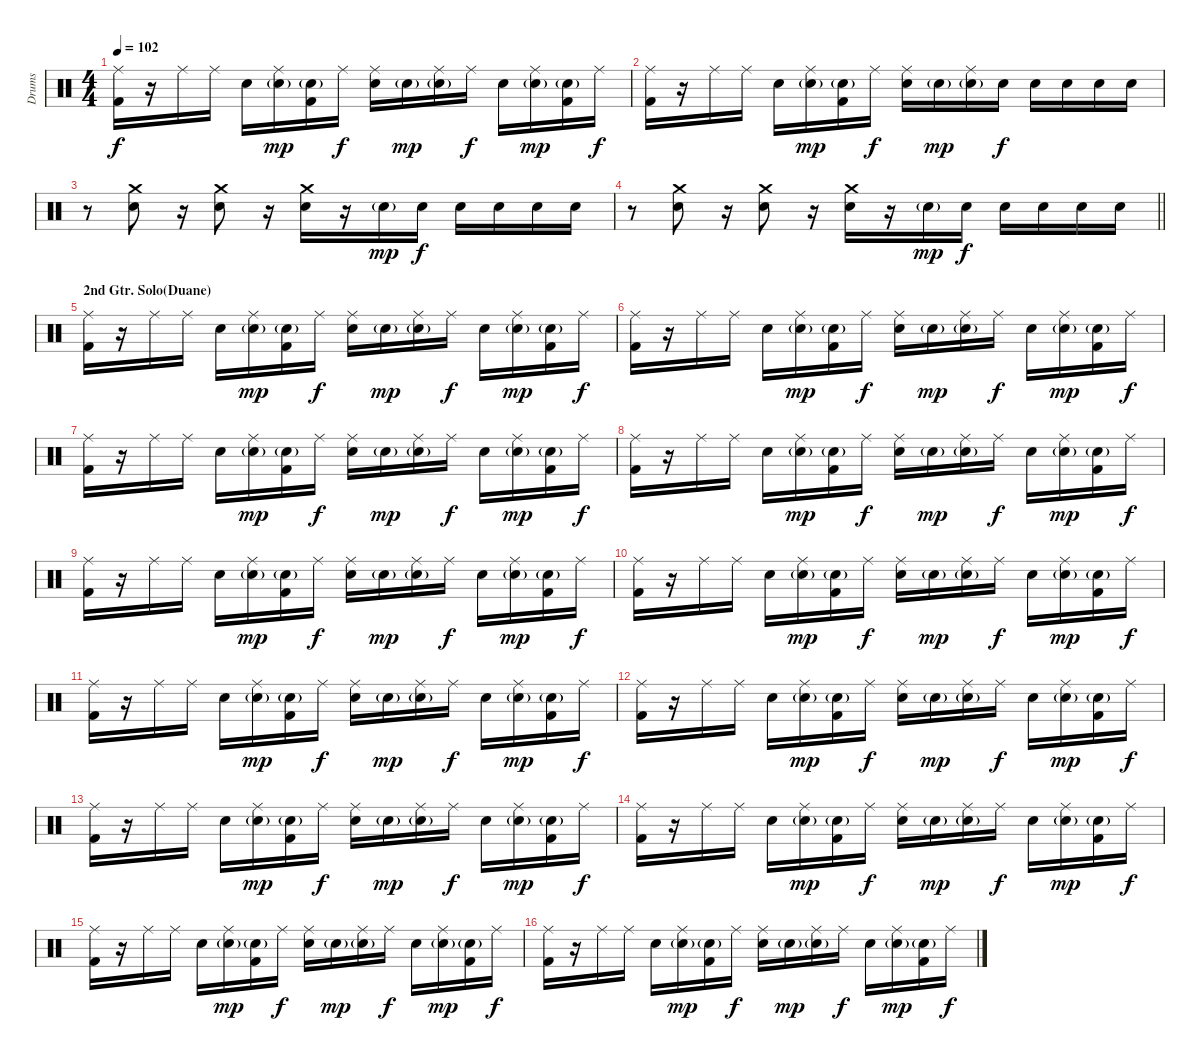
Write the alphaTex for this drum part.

\track ("Drums" "Drums") {instrument percussion}
\staff {score}
\articulation defaults
\ts (4 4)
\tempo 102
\clef neutral
\ks c
("Ride (middle)" "Kick (hit) 2").16{dy f} r.16 "Ride (middle)".16 "Ride (middle)".16 "Electric Snare (hit)".16 ("Ride (middle)" "Electric Snare (hit)"{g}).16{dy mp} ("Electric Snare (hit)"{g} "Kick (hit) 2").16 "Ride (middle)".16{dy f} ("Ride (middle)" "Electric Snare (hit)").16 "Electric Snare (hit)"{g}.16{dy mp} ("Ride (middle)" "Electric Snare (hit)"{g}).16 "Ride (middle)".16{dy f} "Electric Snare (hit)".16 ("Ride (middle)" "Electric Snare (hit)"{g}).16{dy mp} ("Electric Snare (hit)"{g} "Kick (hit) 2").16 "Ride (middle)".16{dy f} |
("Ride (middle)" "Kick (hit) 2").16 r.16 "Ride (middle)".16 "Ride (middle)".16 "Electric Snare (hit)".16 ("Ride (middle)" "Electric Snare (hit)"{g}).16{dy mp} ("Electric Snare (hit)"{g} "Kick (hit) 2").16 "Ride (middle)".16{dy f} ("Ride (middle)" "Electric Snare (hit)").16 "Electric Snare (hit)"{g}.16{dy mp} ("Ride (middle)" "Electric Snare (hit)"{g}).16 "Electric Snare (hit)".16{dy f} "Electric Snare (hit)".16 "Electric Snare (hit)".16 "Electric Snare (hit)".16 "Electric Snare (hit)".16 |
r.8 ("Crash medium (hit)" "Electric Snare (hit)").8 r.16 ("Crash medium (hit)" "Electric Snare (hit)").8 r.16 ("Crash medium (hit)" "Electric Snare (hit)").16 r.16 "Electric Snare (hit)"{g}.16{dy mp} "Electric Snare (hit)".16{dy f} "Electric Snare (hit)".16 "Electric Snare (hit)".16 "Electric Snare (hit)".16 "Electric Snare (hit)".16 |
\barLineRight lightlight
r.8 ("Crash medium (hit)" "Electric Snare (hit)").8 r.16 ("Crash medium (hit)" "Electric Snare (hit)").8 r.16 ("Crash medium (hit)" "Electric Snare (hit)").16 r.16 "Electric Snare (hit)"{g}.16{dy mp} "Electric Snare (hit)".16{dy f} "Electric Snare (hit)".16 "Electric Snare (hit)".16 "Electric Snare (hit)".16 "Electric Snare (hit)".16 |
\section ("" "2nd Gtr. Solo(Duane)")
("Ride (middle)" "Kick (hit) 2").16 r.16 "Ride (middle)".16 "Ride (middle)".16 "Electric Snare (hit)".16 ("Ride (middle)" "Electric Snare (hit)"{g}).16{dy mp} ("Electric Snare (hit)"{g} "Kick (hit) 2").16 "Ride (middle)".16{dy f} ("Ride (middle)" "Electric Snare (hit)").16 "Electric Snare (hit)"{g}.16{dy mp} ("Ride (middle)" "Electric Snare (hit)"{g}).16 "Ride (middle)".16{dy f} "Electric Snare (hit)".16 ("Ride (middle)" "Electric Snare (hit)"{g}).16{dy mp} ("Electric Snare (hit)"{g} "Kick (hit) 2").16 "Ride (middle)".16{dy f} |
("Ride (middle)" "Kick (hit) 2").16 r.16 "Ride (middle)".16 "Ride (middle)".16 "Electric Snare (hit)".16 ("Ride (middle)" "Electric Snare (hit)"{g}).16{dy mp} ("Electric Snare (hit)"{g} "Kick (hit) 2").16 "Ride (middle)".16{dy f} ("Ride (middle)" "Electric Snare (hit)").16 "Electric Snare (hit)"{g}.16{dy mp} ("Ride (middle)" "Electric Snare (hit)"{g}).16 "Ride (middle)".16{dy f} "Electric Snare (hit)".16 ("Ride (middle)" "Electric Snare (hit)"{g}).16{dy mp} ("Electric Snare (hit)"{g} "Kick (hit) 2").16 "Ride (middle)".16{dy f} |
("Ride (middle)" "Kick (hit) 2").16 r.16 "Ride (middle)".16 "Ride (middle)".16 "Electric Snare (hit)".16 ("Ride (middle)" "Electric Snare (hit)"{g}).16{dy mp} ("Electric Snare (hit)"{g} "Kick (hit) 2").16 "Ride (middle)".16{dy f} ("Ride (middle)" "Electric Snare (hit)").16 "Electric Snare (hit)"{g}.16{dy mp} ("Ride (middle)" "Electric Snare (hit)"{g}).16 "Ride (middle)".16{dy f} "Electric Snare (hit)".16 ("Ride (middle)" "Electric Snare (hit)"{g}).16{dy mp} ("Electric Snare (hit)"{g} "Kick (hit) 2").16 "Ride (middle)".16{dy f} |
("Ride (middle)" "Kick (hit) 2").16 r.16 "Ride (middle)".16 "Ride (middle)".16 "Electric Snare (hit)".16 ("Ride (middle)" "Electric Snare (hit)"{g}).16{dy mp} ("Electric Snare (hit)"{g} "Kick (hit) 2").16 "Ride (middle)".16{dy f} ("Ride (middle)" "Electric Snare (hit)").16 "Electric Snare (hit)"{g}.16{dy mp} ("Ride (middle)" "Electric Snare (hit)"{g}).16 "Ride (middle)".16{dy f} "Electric Snare (hit)".16 ("Ride (middle)" "Electric Snare (hit)"{g}).16{dy mp} ("Electric Snare (hit)"{g} "Kick (hit) 2").16 "Ride (middle)".16{dy f} |
("Ride (middle)" "Kick (hit) 2").16 r.16 "Ride (middle)".16 "Ride (middle)".16 "Electric Snare (hit)".16 ("Ride (middle)" "Electric Snare (hit)"{g}).16{dy mp} ("Electric Snare (hit)"{g} "Kick (hit) 2").16 "Ride (middle)".16{dy f} ("Ride (middle)" "Electric Snare (hit)").16 "Electric Snare (hit)"{g}.16{dy mp} ("Ride (middle)" "Electric Snare (hit)"{g}).16 "Ride (middle)".16{dy f} "Electric Snare (hit)".16 ("Ride (middle)" "Electric Snare (hit)"{g}).16{dy mp} ("Electric Snare (hit)"{g} "Kick (hit) 2").16 "Ride (middle)".16{dy f} |
("Ride (middle)" "Kick (hit) 2").16 r.16 "Ride (middle)".16 "Ride (middle)".16 "Electric Snare (hit)".16 ("Ride (middle)" "Electric Snare (hit)"{g}).16{dy mp} ("Electric Snare (hit)"{g} "Kick (hit) 2").16 "Ride (middle)".16{dy f} ("Ride (middle)" "Electric Snare (hit)").16 "Electric Snare (hit)"{g}.16{dy mp} ("Ride (middle)" "Electric Snare (hit)"{g}).16 "Ride (middle)".16{dy f} "Electric Snare (hit)".16 ("Ride (middle)" "Electric Snare (hit)"{g}).16{dy mp} ("Electric Snare (hit)"{g} "Kick (hit) 2").16 "Ride (middle)".16{dy f} |
("Ride (middle)" "Kick (hit) 2").16 r.16 "Ride (middle)".16 "Ride (middle)".16 "Electric Snare (hit)".16 ("Ride (middle)" "Electric Snare (hit)"{g}).16{dy mp} ("Electric Snare (hit)"{g} "Kick (hit) 2").16 "Ride (middle)".16{dy f} ("Ride (middle)" "Electric Snare (hit)").16 "Electric Snare (hit)"{g}.16{dy mp} ("Ride (middle)" "Electric Snare (hit)"{g}).16 "Ride (middle)".16{dy f} "Electric Snare (hit)".16 ("Ride (middle)" "Electric Snare (hit)"{g}).16{dy mp} ("Electric Snare (hit)"{g} "Kick (hit) 2").16 "Ride (middle)".16{dy f} |
("Ride (middle)" "Kick (hit) 2").16 r.16 "Ride (middle)".16 "Ride (middle)".16 "Electric Snare (hit)".16 ("Ride (middle)" "Electric Snare (hit)"{g}).16{dy mp} ("Electric Snare (hit)"{g} "Kick (hit) 2").16 "Ride (middle)".16{dy f} ("Ride (middle)" "Electric Snare (hit)").16 "Electric Snare (hit)"{g}.16{dy mp} ("Ride (middle)" "Electric Snare (hit)"{g}).16 "Ride (middle)".16{dy f} "Electric Snare (hit)".16 ("Ride (middle)" "Electric Snare (hit)"{g}).16{dy mp} ("Electric Snare (hit)"{g} "Kick (hit) 2").16 "Ride (middle)".16{dy f} |
("Ride (middle)" "Kick (hit) 2").16 r.16 "Ride (middle)".16 "Ride (middle)".16 "Electric Snare (hit)".16 ("Ride (middle)" "Electric Snare (hit)"{g}).16{dy mp} ("Electric Snare (hit)"{g} "Kick (hit) 2").16 "Ride (middle)".16{dy f} ("Ride (middle)" "Electric Snare (hit)").16 "Electric Snare (hit)"{g}.16{dy mp} ("Ride (middle)" "Electric Snare (hit)"{g}).16 "Ride (middle)".16{dy f} "Electric Snare (hit)".16 ("Ride (middle)" "Electric Snare (hit)"{g}).16{dy mp} ("Electric Snare (hit)"{g} "Kick (hit) 2").16 "Ride (middle)".16{dy f} |
("Ride (middle)" "Kick (hit) 2").16 r.16 "Ride (middle)".16 "Ride (middle)".16 "Electric Snare (hit)".16 ("Ride (middle)" "Electric Snare (hit)"{g}).16{dy mp} ("Electric Snare (hit)"{g} "Kick (hit) 2").16 "Ride (middle)".16{dy f} ("Ride (middle)" "Electric Snare (hit)").16 "Electric Snare (hit)"{g}.16{dy mp} ("Ride (middle)" "Electric Snare (hit)"{g}).16 "Ride (middle)".16{dy f} "Electric Snare (hit)".16 ("Ride (middle)" "Electric Snare (hit)"{g}).16{dy mp} ("Electric Snare (hit)"{g} "Kick (hit) 2").16 "Ride (middle)".16{dy f} |
("Ride (middle)" "Kick (hit) 2").16 r.16 "Ride (middle)".16 "Ride (middle)".16 "Electric Snare (hit)".16 ("Ride (middle)" "Electric Snare (hit)"{g}).16{dy mp} ("Electric Snare (hit)"{g} "Kick (hit) 2").16 "Ride (middle)".16{dy f} ("Ride (middle)" "Electric Snare (hit)").16 "Electric Snare (hit)"{g}.16{dy mp} ("Ride (middle)" "Electric Snare (hit)"{g}).16 "Ride (middle)".16{dy f} "Electric Snare (hit)".16 ("Ride (middle)" "Electric Snare (hit)"{g}).16{dy mp} ("Electric Snare (hit)"{g} "Kick (hit) 2").16 "Ride (middle)".16{dy f} |
("Ride (middle)" "Kick (hit) 2").16 r.16 "Ride (middle)".16 "Ride (middle)".16 "Electric Snare (hit)".16 ("Ride (middle)" "Electric Snare (hit)"{g}).16{dy mp} ("Electric Snare (hit)"{g} "Kick (hit) 2").16 "Ride (middle)".16{dy f} ("Ride (middle)" "Electric Snare (hit)").16 "Electric Snare (hit)"{g}.16{dy mp} ("Ride (middle)" "Electric Snare (hit)"{g}).16 "Ride (middle)".16{dy f} "Electric Snare (hit)".16 ("Ride (middle)" "Electric Snare (hit)"{g}).16{dy mp} ("Electric Snare (hit)"{g} "Kick (hit) 2").16 "Ride (middle)".16{dy f}
